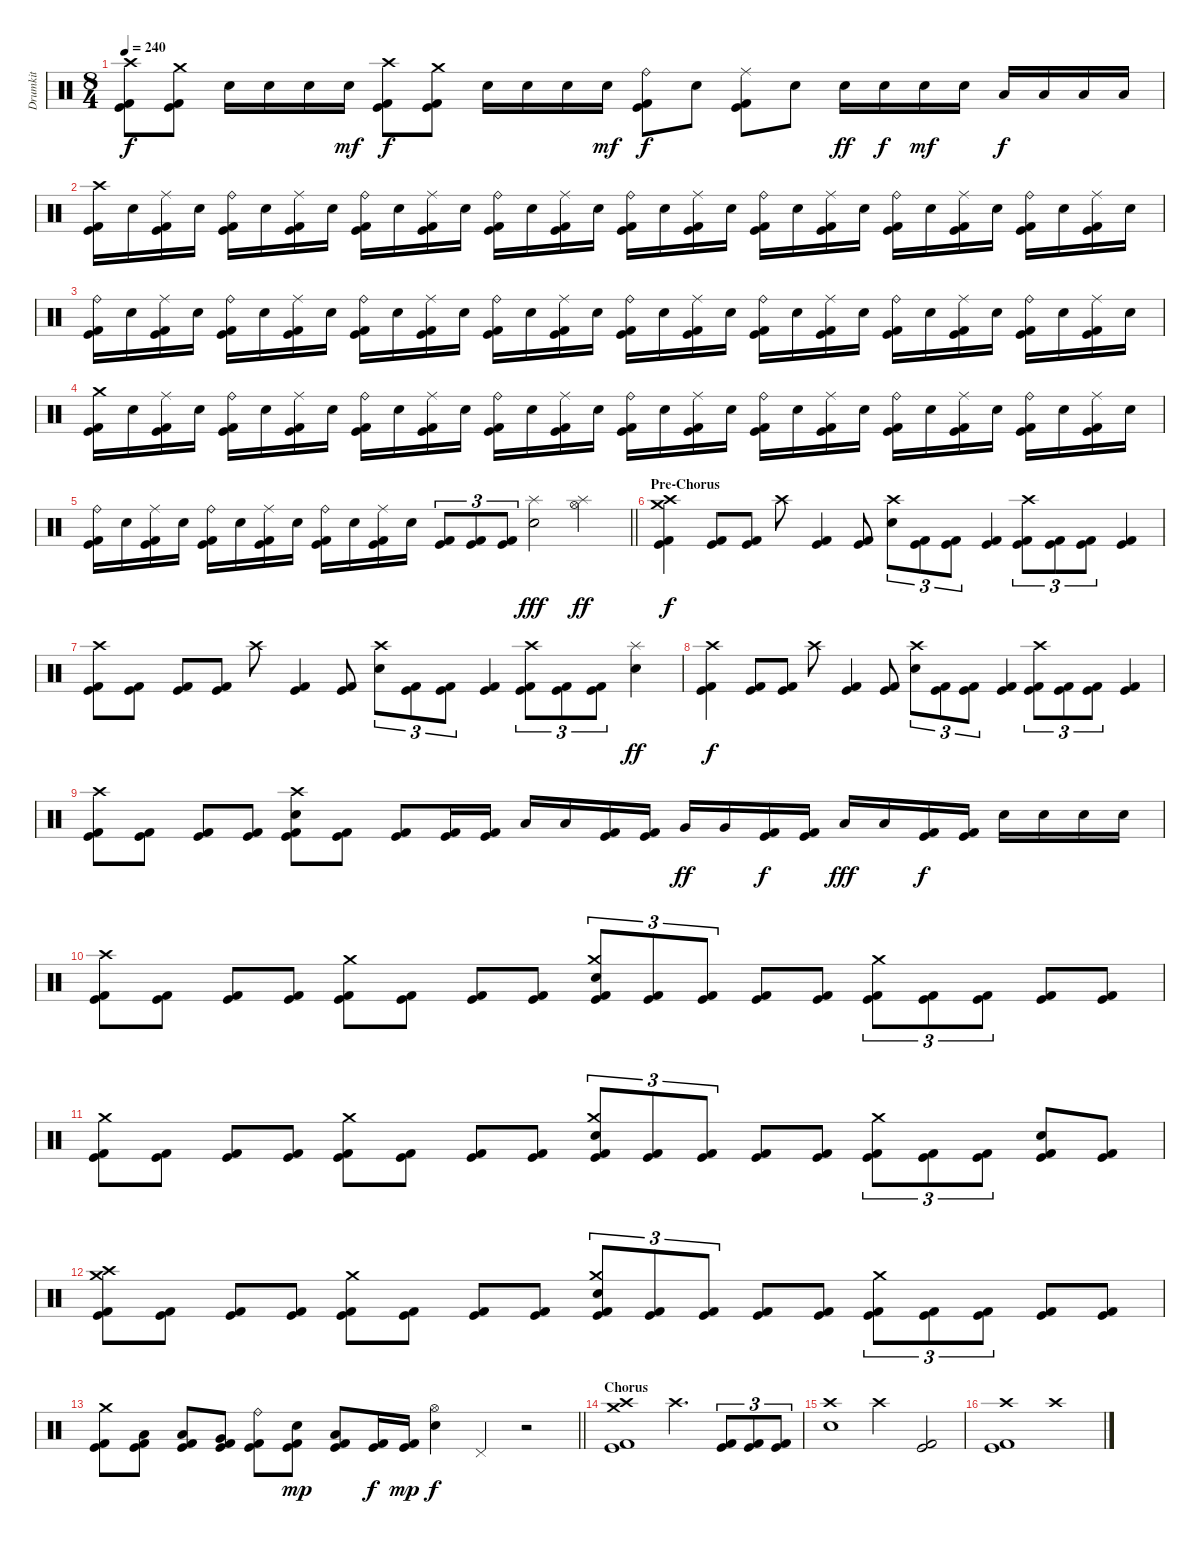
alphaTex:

\track ("Drumkit" "Drumkit") {instrument percussion}
\staff {score}
\articulation defaults
\ts (8 4)
\tempo 240
\clef neutral
\ks c
("Crash high (hit)" "Kick (hit)" "Kick (hit) 2").8{dy f} ("Crash medium (hit)" "Kick (hit)" "Kick (hit) 2").8 "Electric Snare (hit)".16 "Electric Snare (hit)".16 "Electric Snare (hit)".16 "Electric Snare (hit)".16{dy mf} ("Crash high (hit)" "Kick (hit)" "Kick (hit) 2").8{dy f} ("Crash medium (hit)" "Kick (hit)" "Kick (hit) 2").8 "Electric Snare (hit)".16 "Electric Snare (hit)".16 "Electric Snare (hit)".16 "Electric Snare (hit)".16{dy mf} ("Ride (bell)" "Kick (hit)" "Kick (hit) 2").8{dy f} "Electric Snare (hit)".8 ("Ride (middle)" "Kick (hit)" "Kick (hit) 2").8 "Electric Snare (hit)".8 "Electric Snare (hit)".16{dy ff} "Electric Snare (hit)".16{dy f} "Electric Snare (hit)".16{dy mf} "Electric Snare (hit)".16 "Low Tom (hit)".16{dy f} "Low Tom (hit)".16 "Low Tom (hit)".16 "Low Tom (hit)".16 |
("Crash high (hit)" "Kick (hit)" "Kick (hit) 2").16 "Electric Snare (hit)".16 ("Ride (middle)" "Kick (hit)" "Kick (hit) 2").16 "Electric Snare (hit)".16 ("Ride (bell)" "Kick (hit)" "Kick (hit) 2").16 "Electric Snare (hit)".16 ("Ride (middle)" "Kick (hit)" "Kick (hit) 2").16 "Electric Snare (hit)".16 ("Ride (bell)" "Kick (hit)" "Kick (hit) 2").16 "Electric Snare (hit)".16 ("Ride (middle)" "Kick (hit)" "Kick (hit) 2").16 "Electric Snare (hit)".16 ("Ride (bell)" "Kick (hit)" "Kick (hit) 2").16 "Electric Snare (hit)".16 ("Ride (middle)" "Kick (hit)" "Kick (hit) 2").16 "Electric Snare (hit)".16 ("Ride (bell)" "Kick (hit)" "Kick (hit) 2").16 "Electric Snare (hit)".16 ("Ride (middle)" "Kick (hit)" "Kick (hit) 2").16 "Electric Snare (hit)".16 ("Ride (bell)" "Kick (hit)" "Kick (hit) 2").16 "Electric Snare (hit)".16 ("Ride (middle)" "Kick (hit)" "Kick (hit) 2").16 "Electric Snare (hit)".16 ("Ride (bell)" "Kick (hit)" "Kick (hit) 2").16 "Electric Snare (hit)".16 ("Ride (middle)" "Kick (hit)" "Kick (hit) 2").16 "Electric Snare (hit)".16 ("Ride (bell)" "Kick (hit)" "Kick (hit) 2").16 "Electric Snare (hit)".16 ("Ride (middle)" "Kick (hit)" "Kick (hit) 2").16 "Electric Snare (hit)".16 |
("Ride (bell)" "Kick (hit)" "Kick (hit) 2").16 "Electric Snare (hit)".16 ("Ride (middle)" "Kick (hit)" "Kick (hit) 2").16 "Electric Snare (hit)".16 ("Ride (bell)" "Kick (hit)" "Kick (hit) 2").16 "Electric Snare (hit)".16 ("Ride (middle)" "Kick (hit)" "Kick (hit) 2").16 "Electric Snare (hit)".16 ("Ride (bell)" "Kick (hit)" "Kick (hit) 2").16 "Electric Snare (hit)".16 ("Ride (middle)" "Kick (hit)" "Kick (hit) 2").16 "Electric Snare (hit)".16 ("Ride (bell)" "Kick (hit)" "Kick (hit) 2").16 "Electric Snare (hit)".16 ("Ride (middle)" "Kick (hit)" "Kick (hit) 2").16 "Electric Snare (hit)".16 ("Ride (bell)" "Kick (hit)" "Kick (hit) 2").16 "Electric Snare (hit)".16 ("Ride (middle)" "Kick (hit)" "Kick (hit) 2").16 "Electric Snare (hit)".16 ("Ride (bell)" "Kick (hit)" "Kick (hit) 2").16 "Electric Snare (hit)".16 ("Ride (middle)" "Kick (hit)" "Kick (hit) 2").16 "Electric Snare (hit)".16 ("Ride (bell)" "Kick (hit)" "Kick (hit) 2").16 "Electric Snare (hit)".16 ("Ride (middle)" "Kick (hit)" "Kick (hit) 2").16 "Electric Snare (hit)".16 ("Ride (bell)" "Kick (hit)" "Kick (hit) 2").16 "Electric Snare (hit)".16 ("Ride (middle)" "Kick (hit)" "Kick (hit) 2").16 "Electric Snare (hit)".16 |
("Crash medium (hit)" "Kick (hit)" "Kick (hit) 2").16 "Electric Snare (hit)".16 ("Ride (middle)" "Kick (hit)" "Kick (hit) 2").16 "Electric Snare (hit)".16 ("Ride (bell)" "Kick (hit)" "Kick (hit) 2").16 "Electric Snare (hit)".16 ("Ride (middle)" "Kick (hit)" "Kick (hit) 2").16 "Electric Snare (hit)".16 ("Ride (bell)" "Kick (hit)" "Kick (hit) 2").16 "Electric Snare (hit)".16 ("Ride (middle)" "Kick (hit)" "Kick (hit) 2").16 "Electric Snare (hit)".16 ("Ride (bell)" "Kick (hit)" "Kick (hit) 2").16 "Electric Snare (hit)".16 ("Ride (middle)" "Kick (hit)" "Kick (hit) 2").16 "Electric Snare (hit)".16 ("Ride (bell)" "Kick (hit)" "Kick (hit) 2").16 "Electric Snare (hit)".16 ("Ride (middle)" "Kick (hit)" "Kick (hit) 2").16 "Electric Snare (hit)".16 ("Ride (bell)" "Kick (hit)" "Kick (hit) 2").16 "Electric Snare (hit)".16 ("Ride (middle)" "Kick (hit)" "Kick (hit) 2").16 "Electric Snare (hit)".16 ("Ride (bell)" "Kick (hit)" "Kick (hit) 2").16 "Electric Snare (hit)".16 ("Ride (middle)" "Kick (hit)" "Kick (hit) 2").16 "Electric Snare (hit)".16 ("Ride (bell)" "Kick (hit)" "Kick (hit) 2").16 "Electric Snare (hit)".16 ("Ride (middle)" "Kick (hit)" "Kick (hit) 2").16 "Electric Snare (hit)".16 |
\barLineRight lightlight
("Ride (bell)" "Kick (hit)" "Kick (hit) 2").16 "Electric Snare (hit)".16 ("Ride (middle)" "Kick (hit)" "Kick (hit) 2").16 "Electric Snare (hit)".16 ("Ride (bell)" "Kick (hit)" "Kick (hit) 2").16 "Electric Snare (hit)".16 ("Ride (middle)" "Kick (hit)" "Kick (hit) 2").16 "Electric Snare (hit)".16 ("Ride (bell)" "Kick (hit)" "Kick (hit) 2").16 "Electric Snare (hit)".16 ("Ride (middle)" "Kick (hit)" "Kick (hit) 2").16 "Electric Snare (hit)".16 ("Kick (hit)" "Kick (hit) 2").8{tu (3 2)} ("Kick (hit)" "Kick (hit) 2").8{tu (3 2)} ("Kick (hit)" "Kick (hit) 2").8{tu (3 2)} ("Splash (hit)" "Electric Snare (hit)").2{dy fff} ("Splash (hit)" "Hi-Hat (open)").2{dy ff} |
\section ("" "Pre-Chorus")
("Crash high (hit)" "Crash medium (hit)" "Kick (hit)" "Kick (hit) 2").4{dy f} ("Kick (hit)" "Kick (hit) 2").8 ("Kick (hit)" "Kick (hit) 2").8 "Crash high (hit)".8 ("Kick (hit)" "Kick (hit) 2").4 ("Kick (hit)" "Kick (hit) 2").8 ("Crash high (hit)" "Electric Snare (hit)").8{tu (3 2)} ("Kick (hit)" "Kick (hit) 2").8{tu (3 2)} ("Kick (hit)" "Kick (hit) 2").8{tu (3 2)} ("Kick (hit)" "Kick (hit) 2").4 ("Crash high (hit)" "Kick (hit)" "Kick (hit) 2").8{tu (3 2)} ("Kick (hit)" "Kick (hit) 2").8{tu (3 2)} ("Kick (hit)" "Kick (hit) 2").8{tu (3 2)} ("Kick (hit)" "Kick (hit) 2").4 |
("Crash high (hit)" "Kick (hit)" "Kick (hit) 2").8 ("Kick (hit)" "Kick (hit) 2").8 ("Kick (hit)" "Kick (hit) 2").8 ("Kick (hit)" "Kick (hit) 2").8 "Crash high (hit)".8 ("Kick (hit)" "Kick (hit) 2").4 ("Kick (hit)" "Kick (hit) 2").8 ("Crash high (hit)" "Electric Snare (hit)").8{tu (3 2)} ("Kick (hit)" "Kick (hit) 2").8{tu (3 2)} ("Kick (hit)" "Kick (hit) 2").8{tu (3 2)} ("Kick (hit)" "Kick (hit) 2").4 ("Crash high (hit)" "Kick (hit)" "Kick (hit) 2").8{tu (3 2)} ("Kick (hit)" "Kick (hit) 2").8{tu (3 2)} ("Kick (hit)" "Kick (hit) 2").8{tu (3 2)} ("Splash (hit)" "Electric Snare (hit)").4{dy ff} |
("Crash high (hit)" "Kick (hit)" "Kick (hit) 2").4{dy f} ("Kick (hit)" "Kick (hit) 2").8 ("Kick (hit)" "Kick (hit) 2").8 "Crash high (hit)".8 ("Kick (hit)" "Kick (hit) 2").4 ("Kick (hit)" "Kick (hit) 2").8 ("Crash high (hit)" "Electric Snare (hit)").8{tu (3 2)} ("Kick (hit)" "Kick (hit) 2").8{tu (3 2)} ("Kick (hit)" "Kick (hit) 2").8{tu (3 2)} ("Kick (hit)" "Kick (hit) 2").4 ("Crash high (hit)" "Kick (hit)" "Kick (hit) 2").8{tu (3 2)} ("Kick (hit)" "Kick (hit) 2").8{tu (3 2)} ("Kick (hit)" "Kick (hit) 2").8{tu (3 2)} ("Kick (hit)" "Kick (hit) 2").4 |
("Crash high (hit)" "Kick (hit)" "Kick (hit) 2").8 ("Kick (hit)" "Kick (hit) 2").8 ("Kick (hit)" "Kick (hit) 2").8 ("Kick (hit)" "Kick (hit) 2").8 ("Crash high (hit)" "Electric Snare (hit)" "Kick (hit)" "Kick (hit) 2").8 ("Kick (hit)" "Kick (hit) 2").8 ("Kick (hit)" "Kick (hit) 2").8 ("Kick (hit)" "Kick (hit) 2").16 ("Kick (hit)" "Kick (hit) 2").16 "Low Tom (hit)".16 "Low Tom (hit)".16 ("Kick (hit)" "Kick (hit) 2").16 ("Kick (hit)" "Kick (hit) 2").16 "Very Low Tom (hit)".16{dy ff} "Very Low Tom (hit)".16 ("Kick (hit)" "Kick (hit) 2").16{dy f} ("Kick (hit)" "Kick (hit) 2").16 "Low Floor Tom (hit)".16{dy fff} "Low Floor Tom (hit)".16 ("Kick (hit)" "Kick (hit) 2").16{dy f} ("Kick (hit)" "Kick (hit) 2").16 "Electric Snare (hit)".16 "Electric Snare (hit)".16 "Electric Snare (hit)".16 "Electric Snare (hit)".16 |
("Crash high (hit)" "Kick (hit)" "Kick (hit) 2").8 ("Kick (hit)" "Kick (hit) 2").8 ("Kick (hit)" "Kick (hit) 2").8 ("Kick (hit)" "Kick (hit) 2").8 ("Crash medium (hit)" "Kick (hit)" "Kick (hit) 2").8 ("Kick (hit)" "Kick (hit) 2").8 ("Kick (hit)" "Kick (hit) 2").8 ("Kick (hit)" "Kick (hit) 2").8 ("Crash medium (hit)" "Electric Snare (hit)" "Kick (hit)" "Kick (hit) 2").8{tu (3 2)} ("Kick (hit)" "Kick (hit) 2").8{tu (3 2)} ("Kick (hit)" "Kick (hit) 2").8{tu (3 2)} ("Kick (hit)" "Kick (hit) 2").8 ("Kick (hit)" "Kick (hit) 2").8 ("Crash medium (hit)" "Kick (hit)" "Kick (hit) 2").8{tu (3 2)} ("Kick (hit)" "Kick (hit) 2").8{tu (3 2)} ("Kick (hit)" "Kick (hit) 2").8{tu (3 2)} ("Kick (hit)" "Kick (hit) 2").8 ("Kick (hit)" "Kick (hit) 2").8 |
("Crash medium (hit)" "Kick (hit)" "Kick (hit) 2").8 ("Kick (hit)" "Kick (hit) 2").8 ("Kick (hit)" "Kick (hit) 2").8 ("Kick (hit)" "Kick (hit) 2").8 ("Crash medium (hit)" "Kick (hit)" "Kick (hit) 2").8 ("Kick (hit)" "Kick (hit) 2").8 ("Kick (hit)" "Kick (hit) 2").8 ("Kick (hit)" "Kick (hit) 2").8 ("Crash medium (hit)" "Electric Snare (hit)" "Kick (hit)" "Kick (hit) 2").8{tu (3 2)} ("Kick (hit)" "Kick (hit) 2").8{tu (3 2)} ("Kick (hit)" "Kick (hit) 2").8{tu (3 2)} ("Kick (hit)" "Kick (hit) 2").8 ("Kick (hit)" "Kick (hit) 2").8 ("Crash medium (hit)" "Kick (hit)" "Kick (hit) 2").8{tu (3 2)} ("Kick (hit)" "Kick (hit) 2").8{tu (3 2)} ("Kick (hit)" "Kick (hit) 2").8{tu (3 2)} ("Electric Snare (hit)" "Kick (hit)" "Kick (hit) 2").8 ("Kick (hit)" "Kick (hit) 2").8 |
("Crash high (hit)" "Crash medium (hit)" "Kick (hit)" "Kick (hit) 2").8 ("Kick (hit)" "Kick (hit) 2").8 ("Kick (hit)" "Kick (hit) 2").8 ("Kick (hit)" "Kick (hit) 2").8 ("Crash medium (hit)" "Kick (hit)" "Kick (hit) 2").8 ("Kick (hit)" "Kick (hit) 2").8 ("Kick (hit)" "Kick (hit) 2").8 ("Kick (hit)" "Kick (hit) 2").8 ("Crash medium (hit)" "Electric Snare (hit)" "Kick (hit)" "Kick (hit) 2").8{tu (3 2)} ("Kick (hit)" "Kick (hit) 2").8{tu (3 2)} ("Kick (hit)" "Kick (hit) 2").8{tu (3 2)} ("Kick (hit)" "Kick (hit) 2").8 ("Kick (hit)" "Kick (hit) 2").8 ("Crash medium (hit)" "Kick (hit)" "Kick (hit) 2").8{tu (3 2)} ("Kick (hit)" "Kick (hit) 2").8{tu (3 2)} ("Kick (hit)" "Kick (hit) 2").8{tu (3 2)} ("Kick (hit)" "Kick (hit) 2").8 ("Kick (hit)" "Kick (hit) 2").8 |
\barLineRight lightlight
("Crash medium (hit)" "Kick (hit)" "Kick (hit) 2").8 ("Low Tom (hit)" "Kick (hit)" "Kick (hit) 2").8 ("Low Tom (hit)" "Kick (hit)" "Kick (hit) 2").8 ("Very Low Tom (hit)" "Kick (hit)" "Kick (hit) 2").8 ("Ride (bell)" "Kick (hit)" "Kick (hit) 2").8 ("Electric Snare (hit)" "Kick (hit)" "Kick (hit) 2").8{dy mp} ("Low Tom (hit)" "Kick (hit)" "Kick (hit) 2").8 ("Kick (hit)" "Kick (hit) 2").16{dy f} ("Kick (hit)" "Kick (hit) 2").16{dy mp} ("Hi-Hat (open)" "Electric Snare (hit)").4{dy f} "Pedal Hi-Hat (hit)".4 r.2 |
\section ("" "Chorus")
("Crash high (hit)" "Crash medium (hit)" "Kick (hit)" "Kick (hit) 2").1 "Crash high (hit)".2{d} ("Kick (hit)" "Kick (hit) 2").8{tu (3 2)} ("Kick (hit)" "Kick (hit) 2").8{tu (3 2)} ("Kick (hit)" "Kick (hit) 2").8{tu (3 2)} |
("Crash high (hit)" "Electric Snare (hit)").1 "Crash high (hit)".2 ("Kick (hit)" "Kick (hit) 2").2 |
("Crash high (hit)" "Kick (hit)" "Kick (hit) 2").1 "Crash high (hit)".1
